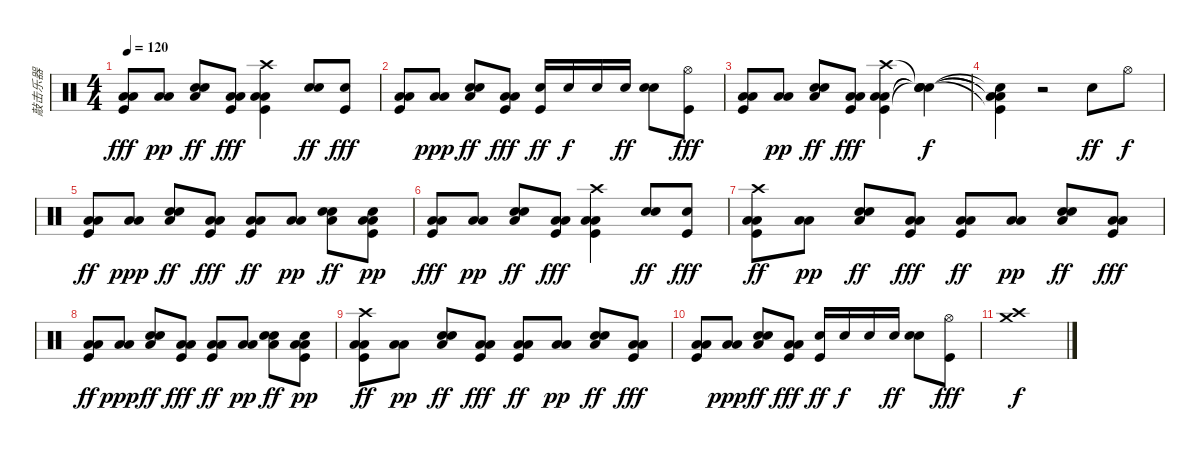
\track ("敲击乐器" "敲击乐器") {instrument percussion}
\staff {score}
\articulation defaults
\ts (4 4)
\tempo 120
\clef neutral
\ks c
("Low Tom (hit)" "Low Floor Tom (hit)" "Kick (hit)").8{dy fff} ("Low Tom (hit)" "Low Floor Tom (hit)").8{dy pp} ("Snare (hit) 2" "Low Floor Tom (hit)" "Hand Clap (hit)").8{dy ff} ("Low Tom (hit)" "Low Floor Tom (hit)" "Kick (hit)").8{dy fff} ("Low Tom (hit)" "Low Floor Tom (hit)" "Kick (hit)" "Crash high (hit)").4 ("Snare (hit) 2" "Hand Clap (hit)").8{dy ff} ("Snare (hit) 2" "Kick (hit)").8{dy fff} |
("Low Tom (hit)" "Low Floor Tom (hit)" "Kick (hit)").8 ("Low Floor Tom (hit)" "Low Tom (hit)").8{dy ppp} ("Low Floor Tom (hit)" "Hand Clap (hit)" "Snare (hit) 2").8{dy ff} ("Low Tom (hit)" "Low Floor Tom (hit)" "Kick (hit)").8{dy fff} ("Kick (hit)" "Snare (hit) 2").16{dy ff} "Snare (hit) 2".16{dy f} "Snare (hit) 2".16 "Snare (hit) 2".16{dy ff} ("Hand Clap (hit)" "Snare (hit) 2").8 ("Kick (hit)" "Hi-Hat (open)").8{dy fff} |
("Low Tom (hit)" "Low Floor Tom (hit)" "Kick (hit)").8 ("Low Tom (hit)" "Low Floor Tom (hit)").8{dy pp} ("Snare (hit) 2" "Low Floor Tom (hit)" "Hand Clap (hit)").8{dy ff} ("Low Tom (hit)" "Low Floor Tom (hit)" "Kick (hit)").8{dy fff} ("Low Tom (hit)" "Low Floor Tom (hit)" "Kick (hit)" "Crash high (hit)").4 ("Snare (hit)"{t} "Snare (hit)"{t} "Snare (hit)"{t} "Snare (hit)"{t}).4{dy f} |
("Low Tom (hit)"{t} "Low Floor Tom (hit)"{t} "Kick (hit)"{t} "Snare (hit)"{t}).4 r.2 "Snare (hit) 2".8{dy ff} "Hi-Hat (open)".8{dy f} |
("Low Tom (hit)" "Low Floor Tom (hit)" "Kick (hit)").8{dy ff} ("Low Floor Tom (hit)" "Low Tom (hit)").8{dy ppp} ("Snare (hit) 2" "Low Floor Tom (hit)" "Hand Clap (hit)").8{dy ff} ("Low Tom (hit)" "Low Floor Tom (hit)" "Kick (hit)").8{dy fff} ("Low Tom (hit)" "Low Floor Tom (hit)" "Kick (hit)").8{dy ff} ("Low Tom (hit)" "Low Floor Tom (hit)").8{dy pp} ("Low Floor Tom (hit)" "Hand Clap (hit)" "Snare (hit) 2").8{dy ff} ("Snare (hit) 2" "Kick (hit)" "Low Tom (hit)" "Low Floor Tom (hit)").8{dy pp} |
("Low Tom (hit)" "Low Floor Tom (hit)" "Kick (hit)").8{dy fff} ("Low Tom (hit)" "Low Floor Tom (hit)").8{dy pp} ("Snare (hit) 2" "Low Floor Tom (hit)" "Hand Clap (hit)").8{dy ff} ("Low Tom (hit)" "Low Floor Tom (hit)" "Kick (hit)").8{dy fff} ("Low Tom (hit)" "Low Floor Tom (hit)" "Kick (hit)" "Crash high (hit)").4 ("Snare (hit) 2" "Hand Clap (hit)").8{dy ff} ("Snare (hit) 2" "Kick (hit)").8{dy fff} |
("Crash high (hit)" "Low Tom (hit)" "Low Floor Tom (hit)" "Kick (hit)").8{dy ff} ("Low Tom (hit)" "Low Floor Tom (hit)").8{dy pp} ("Snare (hit) 2" "Low Floor Tom (hit)" "Hand Clap (hit)").8{dy ff} ("Low Tom (hit)" "Low Floor Tom (hit)" "Kick (hit)").8{dy fff} ("Low Tom (hit)" "Low Floor Tom (hit)" "Kick (hit)").8{dy ff} ("Low Floor Tom (hit)" "Low Tom (hit)").8{dy pp} ("Snare (hit) 2" "Low Floor Tom (hit)" "Hand Clap (hit)").8{dy ff} ("Low Tom (hit)" "Low Floor Tom (hit)" "Kick (hit)").8{dy fff} |
("Low Tom (hit)" "Low Floor Tom (hit)" "Kick (hit)").8{dy ff} ("Low Floor Tom (hit)" "Low Tom (hit)").8{dy ppp} ("Snare (hit) 2" "Low Floor Tom (hit)" "Hand Clap (hit)").8{dy ff} ("Low Tom (hit)" "Low Floor Tom (hit)" "Kick (hit)").8{dy fff} ("Low Tom (hit)" "Low Floor Tom (hit)" "Kick (hit)").8{dy ff} ("Low Tom (hit)" "Low Floor Tom (hit)").8{dy pp} ("Low Floor Tom (hit)" "Hand Clap (hit)" "Snare (hit) 2").8{dy ff} ("Snare (hit) 2" "Kick (hit)" "Low Tom (hit)" "Low Floor Tom (hit)").8{dy pp} |
("Crash high (hit)" "Low Tom (hit)" "Low Floor Tom (hit)" "Kick (hit)").8{dy ff} ("Low Tom (hit)" "Low Floor Tom (hit)").8{dy pp} ("Snare (hit) 2" "Low Floor Tom (hit)" "Hand Clap (hit)").8{dy ff} ("Low Tom (hit)" "Low Floor Tom (hit)" "Kick (hit)").8{dy fff} ("Low Tom (hit)" "Low Floor Tom (hit)" "Kick (hit)").8{dy ff} ("Low Floor Tom (hit)" "Low Tom (hit)").8{dy pp} ("Snare (hit) 2" "Low Floor Tom (hit)" "Hand Clap (hit)").8{dy ff} ("Low Tom (hit)" "Low Floor Tom (hit)" "Kick (hit)").8{dy fff} |
("Low Tom (hit)" "Low Floor Tom (hit)" "Kick (hit)").8 ("Low Floor Tom (hit)" "Low Tom (hit)").8{dy ppp} ("Low Floor Tom (hit)" "Hand Clap (hit)" "Snare (hit) 2").8{dy ff} ("Low Tom (hit)" "Low Floor Tom (hit)" "Kick (hit)").8{dy fff} ("Kick (hit)" "Snare (hit) 2").16{dy ff} "Snare (hit) 2".16{dy f} "Snare (hit) 2".16 "Snare (hit) 2".16{dy ff} ("Hand Clap (hit)" "Snare (hit) 2").8 ("Kick (hit)" "Hi-Hat (open)").8{dy fff} |
("Crash high (hit)" "Crash medium (hit)").1{dy f}
